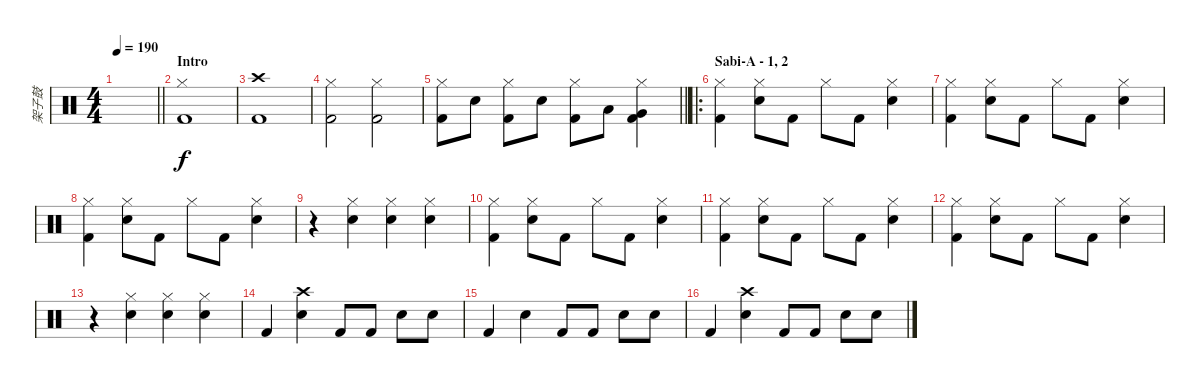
\track ("架子鼓" "架子鼓") {instrument percussion}
\staff {score}
\articulation defaults
\ts (4 4)
\tempo 190
\clef neutral
\barLineRight lightlight
\ks c
|
\section ("" "Intro")
("Hi-Hat (closed)" "Kick (hit) 2").1 |
("Crash high (hit)" "Kick (hit) 2").1 |
("Hi-Hat (closed)" "Kick (hit) 2").2 ("Hi-Hat (closed)" "Kick (hit) 2").2 |
\barLineRight lightlight
("Hi-Hat (closed)" "Kick (hit) 2").8 "Electric Snare (hit)".8 ("Hi-Hat (closed)" "Kick (hit) 2").8 "Electric Snare (hit)".8 ("Hi-Hat (closed)" "Kick (hit) 2").8 "Low Tom (hit)".8 ("Hi-Hat (closed)" "Very Low Tom (hit)" "Kick (hit) 2").4 |
\ro
\section ("" "Sabi-A - 1, 2")
("Hi-Hat (closed)" "Kick (hit) 2").4 ("Hi-Hat (closed)" "Electric Snare (hit)").8 "Kick (hit) 2".8 "Hi-Hat (closed)".8 "Kick (hit) 2".8 ("Hi-Hat (closed)" "Electric Snare (hit)").4 |
("Hi-Hat (closed)" "Kick (hit) 2").4 ("Hi-Hat (closed)" "Electric Snare (hit)").8 "Kick (hit) 2".8 "Hi-Hat (closed)".8 "Kick (hit) 2".8 ("Hi-Hat (closed)" "Electric Snare (hit)").4 |
("Hi-Hat (closed)" "Kick (hit) 2").4 ("Hi-Hat (closed)" "Electric Snare (hit)").8 "Kick (hit) 2".8 "Hi-Hat (closed)".8 "Kick (hit) 2".8 ("Hi-Hat (closed)" "Electric Snare (hit)").4 |
r.4 ("Hi-Hat (closed)" "Electric Snare (hit)").4 ("Hi-Hat (closed)" "Electric Snare (hit)").4 ("Hi-Hat (closed)" "Electric Snare (hit)").4 |
("Hi-Hat (closed)" "Kick (hit) 2").4 ("Hi-Hat (closed)" "Electric Snare (hit)").8 "Kick (hit) 2".8 "Hi-Hat (closed)".8 "Kick (hit) 2".8 ("Hi-Hat (closed)" "Electric Snare (hit)").4 |
("Hi-Hat (closed)" "Kick (hit) 2").4 ("Hi-Hat (closed)" "Electric Snare (hit)").8 "Kick (hit) 2".8 "Hi-Hat (closed)".8 "Kick (hit) 2".8 ("Hi-Hat (closed)" "Electric Snare (hit)").4 |
("Hi-Hat (closed)" "Kick (hit) 2").4 ("Hi-Hat (closed)" "Electric Snare (hit)").8 "Kick (hit) 2".8 "Hi-Hat (closed)".8 "Kick (hit) 2".8 ("Hi-Hat (closed)" "Electric Snare (hit)").4 |
r.4 ("Hi-Hat (closed)" "Electric Snare (hit)").4 ("Hi-Hat (closed)" "Electric Snare (hit)").4 ("Hi-Hat (closed)" "Electric Snare (hit)").4 |
"Kick (hit) 2".4 ("Crash high (hit)" "Electric Snare (hit)").4 "Kick (hit) 2".8 "Kick (hit) 2".8 "Electric Snare (hit)".8 "Electric Snare (hit)".8 |
"Kick (hit) 2".4 "Electric Snare (hit)".4 "Kick (hit) 2".8 "Kick (hit) 2".8 "Electric Snare (hit)".8 "Electric Snare (hit)".8 |
"Kick (hit) 2".4 ("Crash high (hit)" "Electric Snare (hit)").4 "Kick (hit) 2".8 "Kick (hit) 2".8 "Electric Snare (hit)".8 "Electric Snare (hit)".8
